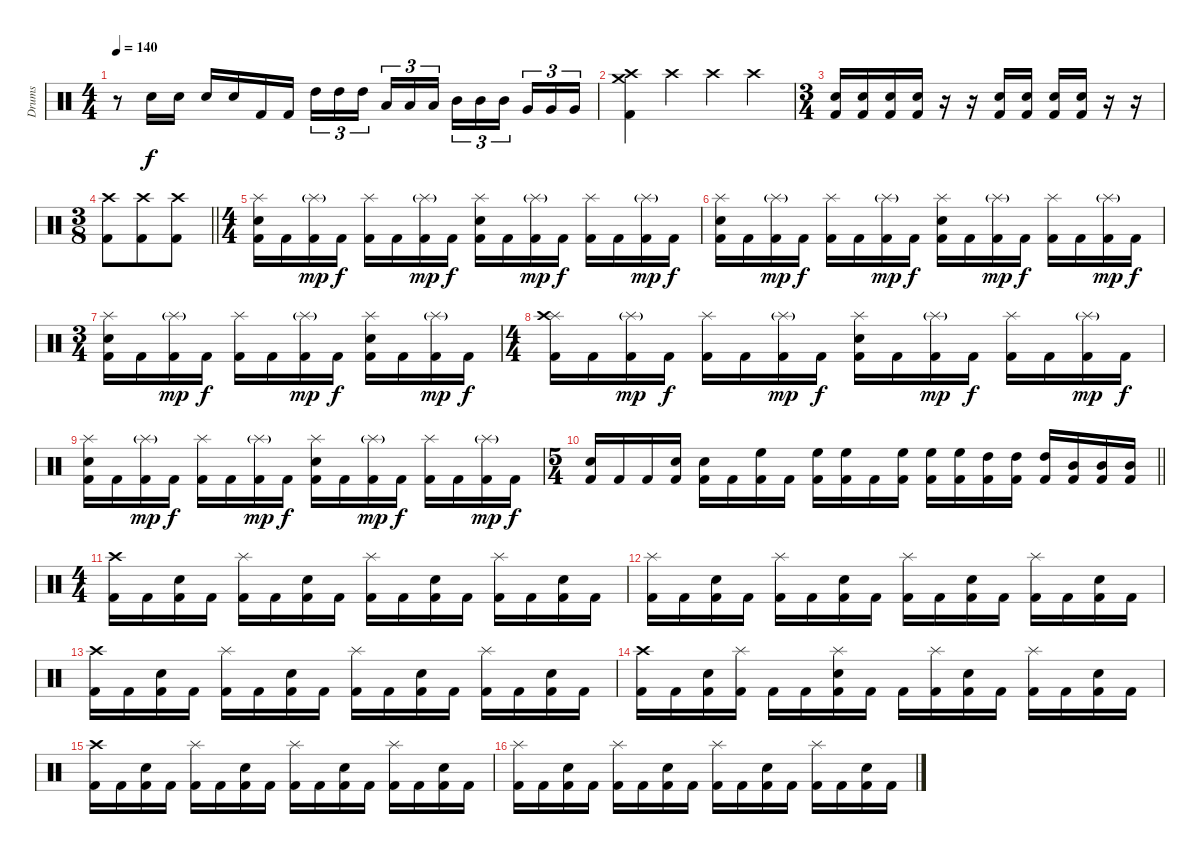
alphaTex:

\track ("Drums" "Drums") {instrument percussion}
\staff {score}
\articulation defaults
\ts (4 4)
\tempo 140
\clef neutral
\ks c
r.8{dy f} "Snare (hit) 2".16 "Snare (hit) 2".16 "Snare (hit) 2".16 "Snare (hit) 2".16 "Kick (hit) 2".16 "Kick (hit) 2".16 "High Tom (hit)".16{tu (3 2)} "High Tom (hit)".16{tu (3 2)} "High Tom (hit)".16{tu (3 2)} "Low Tom (hit)".16{tu (3 2)} "Low Tom (hit)".16{tu (3 2)} "Low Tom (hit)".16{tu (3 2)} "Mid Tom (hit)".16{tu (3 2)} "Mid Tom (hit)".16{tu (3 2)} "Mid Tom (hit)".16{tu (3 2)} "Very Low Tom (hit)".16{tu (3 2)} "Very Low Tom (hit)".16{tu (3 2)} "Very Low Tom (hit)".16{tu (3 2)} |
("Crash high (hit)" "Crash medium (hit)" "Kick (hit) 2").4 "Crash high (hit)".4 "Crash high (hit)".4 "Crash high (hit)".4 |
\ts (3 4)
("Snare (hit) 2" "Kick (hit) 2").16 ("Snare (hit) 2" "Kick (hit) 2").16 ("Snare (hit) 2" "Kick (hit) 2").16 ("Snare (hit) 2" "Kick (hit) 2").16 r.16 r.16 ("Snare (hit) 2" "Kick (hit) 2").16 ("Snare (hit) 2" "Kick (hit) 2").16 ("Snare (hit) 2" "Kick (hit) 2").16 ("Snare (hit) 2" "Kick (hit) 2").16 r.16 r.16 |
\ts (3 8)
\barLineRight lightlight
("Crash high (hit)" "Kick (hit) 2").8 ("Crash high (hit)" "Kick (hit) 2").8 ("Crash high (hit)" "Kick (hit) 2").8 |
\ts (4 4)
("Splash (hit)" "Snare (hit) 2" "Kick (hit) 2").16 "Kick (hit) 2".16 ("Splash (hit)"{g} "Kick (hit) 2").16{dy mp} "Kick (hit) 2".16{dy f} ("Splash (hit)" "Kick (hit) 2").16 "Kick (hit) 2".16 ("Splash (hit)"{g} "Kick (hit) 2").16{dy mp} "Kick (hit) 2".16{dy f} ("Splash (hit)" "Snare (hit) 2" "Kick (hit) 2").16 "Kick (hit) 2".16 ("Splash (hit)"{g} "Kick (hit) 2").16{dy mp} "Kick (hit) 2".16{dy f} ("Splash (hit)" "Kick (hit) 2").16 "Kick (hit) 2".16 ("Splash (hit)"{g} "Kick (hit) 2").16{dy mp} "Kick (hit) 2".16{dy f} |
("Splash (hit)" "Snare (hit) 2" "Kick (hit) 2").16 "Kick (hit) 2".16 ("Splash (hit)"{g} "Kick (hit) 2").16{dy mp} "Kick (hit) 2".16{dy f} ("Splash (hit)" "Kick (hit) 2").16 "Kick (hit) 2".16 ("Splash (hit)"{g} "Kick (hit) 2").16{dy mp} "Kick (hit) 2".16{dy f} ("Splash (hit)" "Snare (hit) 2" "Kick (hit) 2").16 "Kick (hit) 2".16 ("Splash (hit)"{g} "Kick (hit) 2").16{dy mp} "Kick (hit) 2".16{dy f} ("Splash (hit)" "Kick (hit) 2").16 "Kick (hit) 2".16 ("Splash (hit)"{g} "Kick (hit) 2").16{dy mp} "Kick (hit) 2".16{dy f} |
\ts (3 4)
("Splash (hit)" "Snare (hit) 2" "Kick (hit) 2").16 "Kick (hit) 2".16 ("Splash (hit)"{g} "Kick (hit) 2").16{dy mp} "Kick (hit) 2".16{dy f} ("Splash (hit)" "Kick (hit) 2").16 "Kick (hit) 2".16 ("Splash (hit)"{g} "Kick (hit) 2").16{dy mp} "Kick (hit) 2".16{dy f} ("Splash (hit)" "Snare (hit) 2" "Kick (hit) 2").16 "Kick (hit) 2".16 ("Splash (hit)"{g} "Kick (hit) 2").16{dy mp} "Kick (hit) 2".16{dy f} |
\ts (4 4)
("Splash (hit)" "Crash high (hit)" "Kick (hit) 2").16 "Kick (hit) 2".16 ("Splash (hit)"{g} "Kick (hit) 2").16{dy mp} "Kick (hit) 2".16{dy f} ("Splash (hit)" "Kick (hit) 2").16 "Kick (hit) 2".16 ("Splash (hit)"{g} "Kick (hit) 2").16{dy mp} "Kick (hit) 2".16{dy f} ("Splash (hit)" "Snare (hit) 2" "Kick (hit) 2").16 "Kick (hit) 2".16 ("Splash (hit)"{g} "Kick (hit) 2").16{dy mp} "Kick (hit) 2".16{dy f} ("Splash (hit)" "Kick (hit) 2").16 "Kick (hit) 2".16 ("Splash (hit)"{g} "Kick (hit) 2").16{dy mp} "Kick (hit) 2".16{dy f} |
("Splash (hit)" "Snare (hit) 2" "Kick (hit) 2").16 "Kick (hit) 2".16 ("Splash (hit)"{g} "Kick (hit) 2").16{dy mp} "Kick (hit) 2".16{dy f} ("Splash (hit)" "Kick (hit) 2").16 "Kick (hit) 2".16 ("Splash (hit)"{g} "Kick (hit) 2").16{dy mp} "Kick (hit) 2".16{dy f} ("Splash (hit)" "Snare (hit) 2" "Kick (hit) 2").16 "Kick (hit) 2".16 ("Splash (hit)"{g} "Kick (hit) 2").16{dy mp} "Kick (hit) 2".16{dy f} ("Splash (hit)" "Kick (hit) 2").16 "Kick (hit) 2".16 ("Splash (hit)"{g} "Kick (hit) 2").16{dy mp} "Kick (hit) 2".16{dy f} |
\ts (5 4)
\barLineRight lightlight
("Snare (hit) 2" "Kick (hit) 2").16 "Kick (hit) 2".16 "Kick (hit) 2".16 ("Snare (hit) 2" "Kick (hit) 2").16 ("Snare (hit) 2" "Kick (hit) 2").16 "Kick (hit) 2".16 ("High Floor Tom (hit)" "Kick (hit) 2").16 "Kick (hit) 2".16 ("High Floor Tom (hit)" "Kick (hit) 2").16 ("High Floor Tom (hit)" "Kick (hit) 2").16 "Kick (hit) 2".16 ("High Floor Tom (hit)" "Kick (hit) 2").16 ("High Floor Tom (hit)" "Kick (hit) 2").16 ("High Floor Tom (hit)" "Kick (hit) 2").16 ("High Tom (hit)" "Kick (hit) 2").16 ("High Tom (hit)" "Kick (hit) 2").16 ("High Tom (hit)" "Kick (hit) 2").16 ("Mid Tom (hit)" "Kick (hit) 2").16 ("Mid Tom (hit)" "Kick (hit) 2").16 ("Mid Tom (hit)" "Kick (hit) 2").16 |
\ts (4 4)
("Crash high (hit)" "Kick (hit) 2").16 "Kick (hit) 2".16 ("Snare (hit) 2" "Kick (hit) 2").16 "Kick (hit) 2".16 ("Splash (hit)" "Kick (hit) 2").16 "Kick (hit) 2".16 ("Snare (hit) 2" "Kick (hit) 2").16 "Kick (hit) 2".16 ("Splash (hit)" "Kick (hit) 2").16 "Kick (hit) 2".16 ("Snare (hit) 2" "Kick (hit) 2").16 "Kick (hit) 2".16 ("Splash (hit)" "Kick (hit) 2").16 "Kick (hit) 2".16 ("Snare (hit) 2" "Kick (hit) 2").16 "Kick (hit) 2".16 |
("Splash (hit)" "Kick (hit) 2").16 "Kick (hit) 2".16 ("Snare (hit) 2" "Kick (hit) 2").16 "Kick (hit) 2".16 ("Splash (hit)" "Kick (hit) 2").16 "Kick (hit) 2".16 ("Snare (hit) 2" "Kick (hit) 2").16 "Kick (hit) 2".16 ("Splash (hit)" "Kick (hit) 2").16 "Kick (hit) 2".16 ("Snare (hit) 2" "Kick (hit) 2").16 "Kick (hit) 2".16 ("Splash (hit)" "Kick (hit) 2").16 "Kick (hit) 2".16 ("Snare (hit) 2" "Kick (hit) 2").16 "Kick (hit) 2".16 |
("Crash high (hit)" "Kick (hit) 2").16 "Kick (hit) 2".16 ("Snare (hit) 2" "Kick (hit) 2").16 "Kick (hit) 2".16 ("Splash (hit)" "Kick (hit) 2").16 "Kick (hit) 2".16 ("Snare (hit) 2" "Kick (hit) 2").16 "Kick (hit) 2".16 ("Splash (hit)" "Kick (hit) 2").16 "Kick (hit) 2".16 ("Snare (hit) 2" "Kick (hit) 2").16 "Kick (hit) 2".16 ("Splash (hit)" "Kick (hit) 2").16 "Kick (hit) 2".16 ("Snare (hit) 2" "Kick (hit) 2").16 "Kick (hit) 2".16 |
("Crash high (hit)" "Kick (hit) 2").16 "Kick (hit) 2".16 ("Snare (hit) 2" "Kick (hit) 2").16 ("Splash (hit)" "Kick (hit) 2").16 "Kick (hit) 2".16 "Kick (hit) 2".16 ("Splash (hit)" "Snare (hit) 2" "Kick (hit) 2").16 "Kick (hit) 2".16 "Kick (hit) 2".16 ("Splash (hit)" "Kick (hit) 2").16 ("Snare (hit) 2" "Kick (hit) 2").16 "Kick (hit) 2".16 ("Splash (hit)" "Kick (hit) 2").16 "Kick (hit) 2".16 ("Snare (hit) 2" "Kick (hit) 2").16 "Kick (hit) 2".16 |
("Crash high (hit)" "Kick (hit) 2").16 "Kick (hit) 2".16 ("Snare (hit) 2" "Kick (hit) 2").16 "Kick (hit) 2".16 ("Splash (hit)" "Kick (hit) 2").16 "Kick (hit) 2".16 ("Snare (hit) 2" "Kick (hit) 2").16 "Kick (hit) 2".16 ("Splash (hit)" "Kick (hit) 2").16 "Kick (hit) 2".16 ("Snare (hit) 2" "Kick (hit) 2").16 "Kick (hit) 2".16 ("Splash (hit)" "Kick (hit) 2").16 "Kick (hit) 2".16 ("Snare (hit) 2" "Kick (hit) 2").16 "Kick (hit) 2".16 |
("Splash (hit)" "Kick (hit) 2").16 "Kick (hit) 2".16 ("Snare (hit) 2" "Kick (hit) 2").16 "Kick (hit) 2".16 ("Splash (hit)" "Kick (hit) 2").16 "Kick (hit) 2".16 ("Snare (hit) 2" "Kick (hit) 2").16 "Kick (hit) 2".16 ("Splash (hit)" "Kick (hit) 2").16 "Kick (hit) 2".16 ("Snare (hit) 2" "Kick (hit) 2").16 "Kick (hit) 2".16 ("Splash (hit)" "Kick (hit) 2").16 "Kick (hit) 2".16 ("Snare (hit) 2" "Kick (hit) 2").16 "Kick (hit) 2".16
